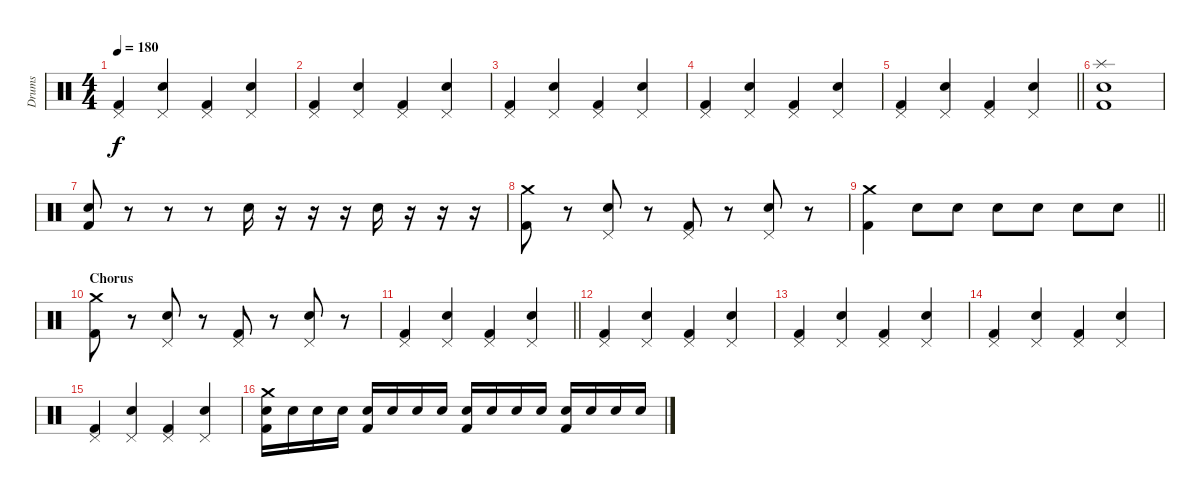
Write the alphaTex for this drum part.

\track ("Drums" "Drums") {instrument percussion}
\staff {score}
\articulation defaults
\ts (4 4)
\tempo 180
\clef neutral
\ks c
("Pedal Hi-Hat (hit)" "Kick (hit) 2").4{dy f} ("Pedal Hi-Hat (hit)" "Snare (hit) 2").4 ("Pedal Hi-Hat (hit)" "Kick (hit) 2").4 ("Pedal Hi-Hat (hit)" "Snare (hit) 2").4 |
("Pedal Hi-Hat (hit)" "Kick (hit) 2").4 ("Pedal Hi-Hat (hit)" "Snare (hit) 2").4 ("Pedal Hi-Hat (hit)" "Kick (hit) 2").4 ("Pedal Hi-Hat (hit)" "Snare (hit) 2").4 |
("Pedal Hi-Hat (hit)" "Kick (hit) 2").4 ("Pedal Hi-Hat (hit)" "Snare (hit) 2").4 ("Pedal Hi-Hat (hit)" "Kick (hit) 2").4 ("Pedal Hi-Hat (hit)" "Snare (hit) 2").4 |
("Pedal Hi-Hat (hit)" "Kick (hit) 2").4 ("Pedal Hi-Hat (hit)" "Snare (hit) 2").4 ("Pedal Hi-Hat (hit)" "Kick (hit) 2").4 ("Pedal Hi-Hat (hit)" "Snare (hit) 2").4 |
\barLineRight lightlight
("Pedal Hi-Hat (hit)" "Kick (hit) 2").4 ("Pedal Hi-Hat (hit)" "Snare (hit) 2").4 ("Pedal Hi-Hat (hit)" "Kick (hit) 2").4 ("Pedal Hi-Hat (hit)" "Snare (hit) 2").4 |
("Splash (hit)" "Snare (hit) 2" "Kick (hit) 2").1 |
("Snare (hit) 2" "Kick (hit) 2").8 r.8 r.8 r.8 "Snare (hit) 2".16 r.16 r.16 r.16 "Snare (hit) 2".16 r.16 r.16 r.16 |
("Crash medium (hit)" "Kick (hit) 2").8 r.8 ("Pedal Hi-Hat (hit)" "Snare (hit) 2").8 r.8 ("Pedal Hi-Hat (hit)" "Kick (hit) 2").8 r.8 ("Pedal Hi-Hat (hit)" "Snare (hit) 2").8 r.8 |
\barLineRight lightlight
("Crash medium (hit)" "Kick (hit) 2").4 "Snare (hit) 2".8 "Snare (hit) 2".8 "Snare (hit) 2".8 "Snare (hit) 2".8 "Snare (hit) 2".8 "Snare (hit) 2".8 |
\section ("" "Chorus")
("Crash medium (hit)" "Kick (hit) 2").8 r.8 ("Pedal Hi-Hat (hit)" "Snare (hit) 2").8 r.8 ("Pedal Hi-Hat (hit)" "Kick (hit) 2").8 r.8 ("Pedal Hi-Hat (hit)" "Snare (hit) 2").8 r.8 |
\barLineRight lightlight
("Pedal Hi-Hat (hit)" "Kick (hit) 2").4 ("Pedal Hi-Hat (hit)" "Snare (hit) 2").4 ("Pedal Hi-Hat (hit)" "Kick (hit) 2").4 ("Pedal Hi-Hat (hit)" "Snare (hit) 2").4 |
("Pedal Hi-Hat (hit)" "Kick (hit) 2").4 ("Pedal Hi-Hat (hit)" "Snare (hit) 2").4 ("Pedal Hi-Hat (hit)" "Kick (hit) 2").4 ("Pedal Hi-Hat (hit)" "Snare (hit) 2").4 |
("Pedal Hi-Hat (hit)" "Kick (hit) 2").4 ("Pedal Hi-Hat (hit)" "Snare (hit) 2").4 ("Pedal Hi-Hat (hit)" "Kick (hit) 2").4 ("Pedal Hi-Hat (hit)" "Snare (hit) 2").4 |
("Pedal Hi-Hat (hit)" "Kick (hit) 2").4 ("Pedal Hi-Hat (hit)" "Snare (hit) 2").4 ("Pedal Hi-Hat (hit)" "Kick (hit) 2").4 ("Pedal Hi-Hat (hit)" "Snare (hit) 2").4 |
("Pedal Hi-Hat (hit)" "Kick (hit) 2").4 ("Pedal Hi-Hat (hit)" "Snare (hit) 2").4 ("Pedal Hi-Hat (hit)" "Kick (hit) 2").4 ("Pedal Hi-Hat (hit)" "Snare (hit) 2").4 |
("Crash medium (hit)" "Snare (hit) 2" "Kick (hit) 2").16 "Snare (hit) 2".16 "Snare (hit) 2".16 "Snare (hit) 2".16 ("Snare (hit) 2" "Kick (hit) 2").16 "Snare (hit) 2".16 "Snare (hit) 2".16 "Snare (hit) 2".16 ("Snare (hit) 2" "Kick (hit) 2").16 "Snare (hit) 2".16 "Snare (hit) 2".16 "Snare (hit) 2".16 ("Snare (hit) 2" "Kick (hit) 2").16 "Snare (hit) 2".16 "Snare (hit) 2".16 "Snare (hit) 2".16
